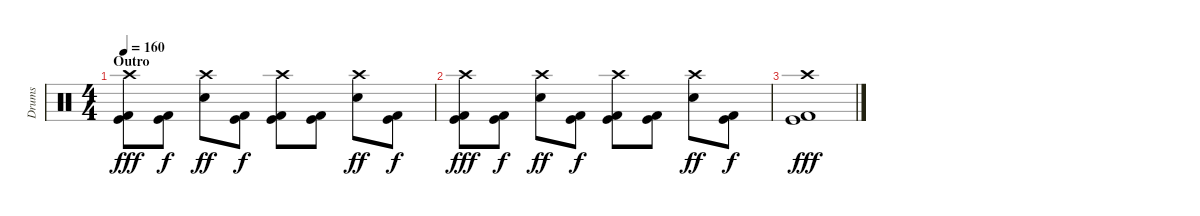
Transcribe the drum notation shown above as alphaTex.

\track ("Drums" "Drums") {instrument percussion}
\staff {score}
\articulation defaults
\ts (4 4)
\section ("" "Outro")
\tempo 160
\clef neutral
\ks c
("Crash high (hit)" "Kick (hit)" "Kick (hit) 2").8{dy fff} ("Kick (hit)" "Kick (hit) 2").8{dy f} ("Crash high (hit)" "Snare (hit) 2").8{dy ff} ("Kick (hit)" "Kick (hit) 2").8{dy f} ("Crash high (hit)" "Kick (hit)" "Kick (hit) 2").8 ("Kick (hit)" "Kick (hit) 2").8 ("Crash high (hit)" "Snare (hit) 2").8{dy ff} ("Kick (hit)" "Kick (hit) 2").8{dy f} |
("Crash high (hit)" "Kick (hit)" "Kick (hit) 2").8{dy fff} ("Kick (hit)" "Kick (hit) 2").8{dy f} ("Crash high (hit)" "Snare (hit) 2").8{dy ff} ("Kick (hit)" "Kick (hit) 2").8{dy f} ("Crash high (hit)" "Kick (hit)" "Kick (hit) 2").8 ("Kick (hit)" "Kick (hit) 2").8 ("Crash high (hit)" "Snare (hit) 2").8{dy ff} ("Kick (hit)" "Kick (hit) 2").8{dy f} |
("Crash high (hit)" "Kick (hit)" "Kick (hit) 2").1{dy fff}
